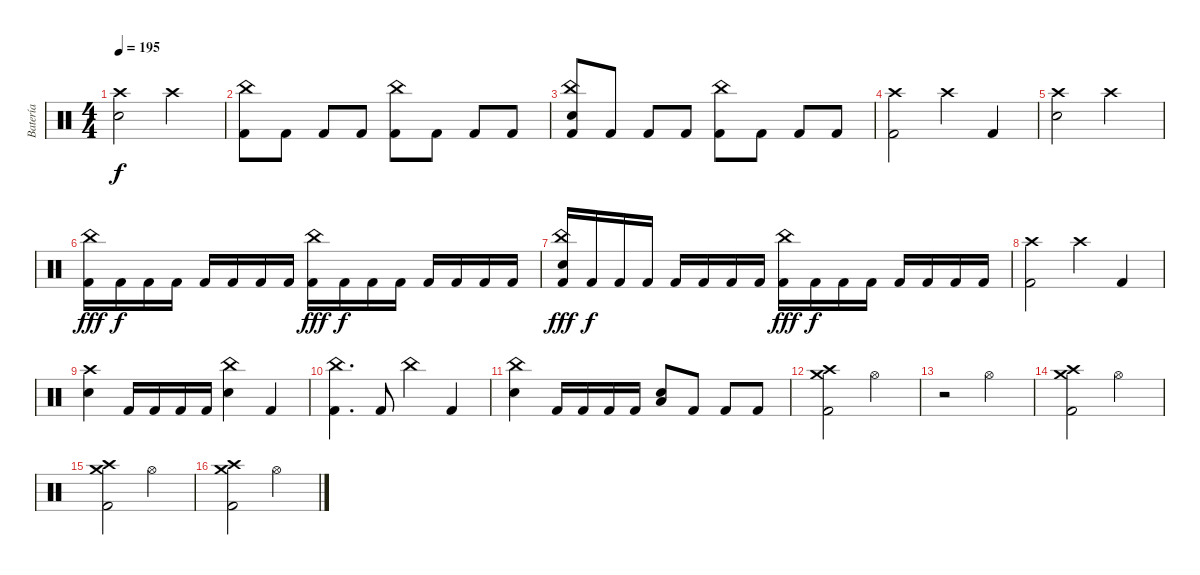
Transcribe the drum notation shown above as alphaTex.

\track ("Batería" "Batería") {instrument percussion}
\staff {score}
\articulation defaults
\ts (4 4)
\tempo 195
\clef neutral
\ks c
("Crash high (hit)" "Snare (hit) 2").2{dy f} "Crash high (hit)".2 |
("China (hit)" "Kick (hit) 2").8 "Kick (hit) 2".8 "Kick (hit) 2".8 "Kick (hit) 2".8 ("China (hit)" "Kick (hit) 2").8 "Kick (hit) 2".8 "Kick (hit) 2".8 "Kick (hit) 2".8 |
("China (hit)" "Snare (hit) 2" "Kick (hit) 2").8 "Kick (hit) 2".8 "Kick (hit) 2".8 "Kick (hit) 2".8 ("China (hit)" "Kick (hit) 2").8 "Kick (hit) 2".8 "Kick (hit) 2".8 "Kick (hit) 2".8 |
("Crash high (hit)" "Kick (hit) 2").2 "Crash high (hit)".4 "Kick (hit) 2".4 |
("Crash high (hit)" "Snare (hit) 2").2 "Crash high (hit)".2 |
("China (hit)" "Kick (hit) 2").16{dy fff} "Kick (hit) 2".16{dy f} "Kick (hit) 2".16 "Kick (hit) 2".16 "Kick (hit) 2".16 "Kick (hit) 2".16 "Kick (hit) 2".16 "Kick (hit) 2".16 ("China (hit)" "Kick (hit) 2").16{dy fff} "Kick (hit) 2".16{dy f} "Kick (hit) 2".16 "Kick (hit) 2".16 "Kick (hit) 2".16 "Kick (hit) 2".16 "Kick (hit) 2".16 "Kick (hit) 2".16 |
("China (hit)" "Snare (hit) 2" "Kick (hit) 2").16{dy fff} "Kick (hit) 2".16{dy f} "Kick (hit) 2".16 "Kick (hit) 2".16 "Kick (hit) 2".16 "Kick (hit) 2".16 "Kick (hit) 2".16 "Kick (hit) 2".16 ("China (hit)" "Kick (hit) 2").16{dy fff} "Kick (hit) 2".16{dy f} "Kick (hit) 2".16 "Kick (hit) 2".16 "Kick (hit) 2".16 "Kick (hit) 2".16 "Kick (hit) 2".16 "Kick (hit) 2".16 |
("Crash high (hit)" "Kick (hit) 2").2 "Crash high (hit)".4 "Kick (hit) 2".4 |
("Crash high (hit)" "Snare (hit) 2").4 "Kick (hit) 2".16 "Kick (hit) 2".16 "Kick (hit) 2".16 "Kick (hit) 2".16 ("China (hit)" "Snare (hit) 2").4 "Kick (hit) 2".4 |
("China (hit)" "Kick (hit) 2").4{d} "Kick (hit) 2".8 "China (hit)".4 "Kick (hit) 2".4 |
("China (hit)" "Snare (hit) 2").4 "Kick (hit) 2".16 "Kick (hit) 2".16 "Kick (hit) 2".16 "Kick (hit) 2".16 ("Low Floor Tom (hit)" "Snare (hit) 2").8 "Kick (hit) 2".8 "Kick (hit) 2".8 "Kick (hit) 2".8 |
("Crash high (hit)" "Crash medium (hit)" "Kick (hit) 2").2 "Hi-Hat (open)".2 |
r.2 "Hi-Hat (open)".2 |
("Crash high (hit)" "Crash medium (hit)" "Kick (hit) 2").2 "Hi-Hat (open)".2 |
("Crash high (hit)" "Crash medium (hit)" "Kick (hit) 2").2 "Hi-Hat (open)".2 |
("Crash high (hit)" "Crash medium (hit)" "Kick (hit) 2").2 "Hi-Hat (open)".2
